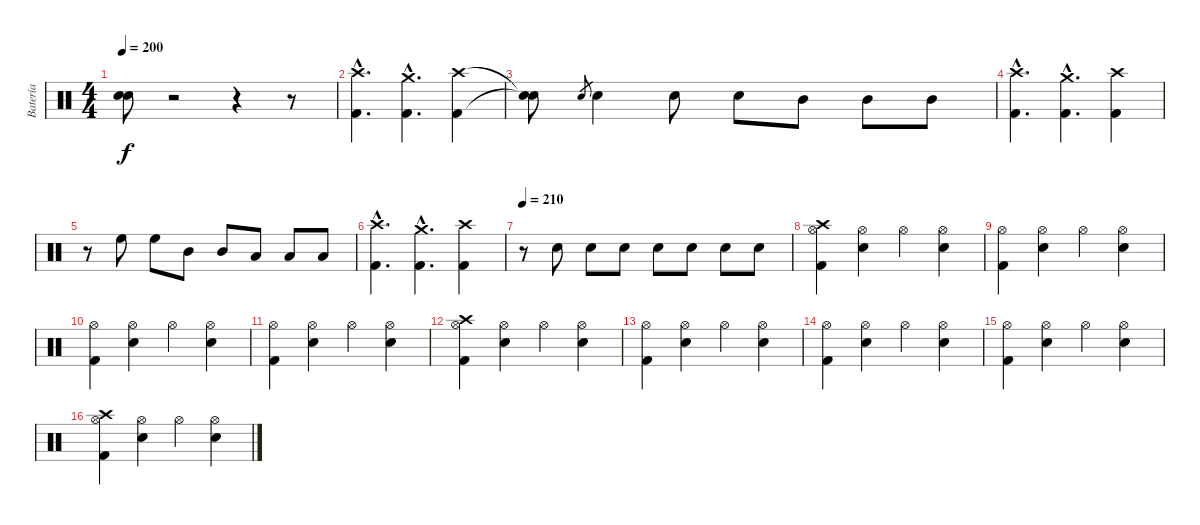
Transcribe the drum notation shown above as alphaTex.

\track ("Batería" "Batería") {instrument percussion}
\staff {score}
\articulation defaults
\ts (4 4)
\tempo 200
\clef neutral
\ks c
("Snare (hit)"{t} "Snare (hit)"{t}).8{dy f} r.2 r.4 r.8 |
("Kick (hit) 2"{hac} "Crash high (hit)"{hac}).4{d} ("Kick (hit) 2"{hac} "Crash medium (hit)"{hac}).4{d} ("Kick (hit) 2" "Crash high (hit)").4 |
("Snare (hit)"{t} "Snare (hit)"{t}).8 "Electric Snare (hit)".8{gr} "Electric Snare (hit)".4 "Electric Snare (hit)".8 "Electric Snare (hit)".8 "Mid Tom (hit)".8 "Mid Tom (hit)".8 "Mid Tom (hit)".8 |
("Kick (hit) 2"{hac} "Crash high (hit)"{hac}).4{d} ("Kick (hit) 2"{hac} "Crash medium (hit)"{hac}).4{d} ("Kick (hit) 2" "Crash high (hit)").4 |
r.8 "High Floor Tom (hit)".8 "High Floor Tom (hit)".8 "Mid Tom (hit)".8 "Mid Tom (hit)".8 "Low Tom (hit)".8 "Low Tom (hit)".8 "Low Tom (hit)".8 |
("Kick (hit) 2"{hac} "Crash high (hit)"{hac}).4{d} ("Kick (hit) 2"{hac} "Crash medium (hit)"{hac}).4{d} ("Kick (hit) 2" "Crash high (hit)").4 |
\tempo 210
r.8 "Electric Snare (hit)".8 "Electric Snare (hit)".8 "Electric Snare (hit)".8 "Electric Snare (hit)".8 "Electric Snare (hit)".8 "Electric Snare (hit)".8 "Electric Snare (hit)".8 |
("Hi-Hat (open)" "Kick (hit) 2" "Crash high (hit)").4 ("Hi-Hat (open)" "Electric Snare (hit)").4 "Hi-Hat (open)".4 ("Hi-Hat (open)" "Electric Snare (hit)").4 |
("Hi-Hat (open)" "Kick (hit) 2").4 ("Hi-Hat (open)" "Electric Snare (hit)").4 "Hi-Hat (open)".4 ("Hi-Hat (open)" "Electric Snare (hit)").4 |
("Hi-Hat (open)" "Kick (hit) 2").4 ("Hi-Hat (open)" "Electric Snare (hit)").4 "Hi-Hat (open)".4 ("Hi-Hat (open)" "Electric Snare (hit)").4 |
("Hi-Hat (open)" "Kick (hit) 2").4 ("Hi-Hat (open)" "Electric Snare (hit)").4 "Hi-Hat (open)".4 ("Hi-Hat (open)" "Electric Snare (hit)").4 |
("Hi-Hat (open)" "Kick (hit) 2" "Crash high (hit)").4 ("Hi-Hat (open)" "Electric Snare (hit)").4 "Hi-Hat (open)".4 ("Hi-Hat (open)" "Electric Snare (hit)").4 |
("Hi-Hat (open)" "Kick (hit) 2").4 ("Hi-Hat (open)" "Electric Snare (hit)").4 "Hi-Hat (open)".4 ("Hi-Hat (open)" "Electric Snare (hit)").4 |
("Hi-Hat (open)" "Kick (hit) 2").4 ("Hi-Hat (open)" "Electric Snare (hit)").4 "Hi-Hat (open)".4 ("Hi-Hat (open)" "Electric Snare (hit)").4 |
("Hi-Hat (open)" "Kick (hit) 2").4 ("Hi-Hat (open)" "Electric Snare (hit)").4 "Hi-Hat (open)".4 ("Hi-Hat (open)" "Electric Snare (hit)").4 |
("Hi-Hat (open)" "Kick (hit) 2" "Crash high (hit)").4 ("Hi-Hat (open)" "Electric Snare (hit)").4 "Hi-Hat (open)".4 ("Hi-Hat (open)" "Electric Snare (hit)").4
